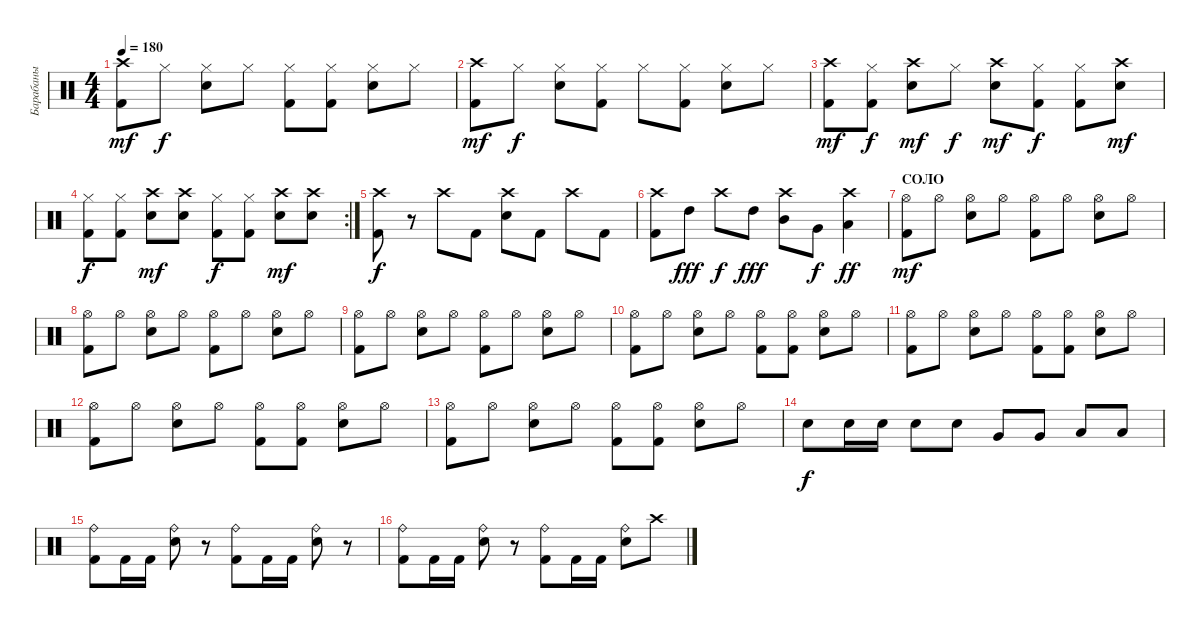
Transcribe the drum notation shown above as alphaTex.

\track ("Барабаны" "Барабаны") {instrument percussion}
\staff {score}
\articulation defaults
\ts (4 4)
\tempo 180
\clef neutral
\ks c
("Crash high (hit)" "Kick (hit) 2").8{dy mf} "Hi-Hat (closed)".8{dy f} ("Hi-Hat (closed)" "Snare (hit) 2").8 "Hi-Hat (closed)".8 ("Hi-Hat (closed)" "Kick (hit) 2").8 ("Hi-Hat (closed)" "Kick (hit) 2").8 ("Hi-Hat (closed)" "Snare (hit) 2").8 "Hi-Hat (closed)".8 |
("Crash high (hit)" "Kick (hit) 2").8{dy mf} "Hi-Hat (closed)".8{dy f} ("Hi-Hat (closed)" "Snare (hit) 2").8 ("Hi-Hat (closed)" "Kick (hit) 2").8 "Hi-Hat (closed)".8 ("Hi-Hat (closed)" "Kick (hit) 2").8 ("Hi-Hat (closed)" "Snare (hit) 2").8 "Hi-Hat (closed)".8 |
("Crash high (hit)" "Kick (hit) 2").8{dy mf} ("Hi-Hat (closed)" "Kick (hit) 2").8{dy f} ("Crash high (hit)" "Snare (hit) 2").8{dy mf} "Hi-Hat (closed)".8{dy f} ("Crash high (hit)" "Snare (hit) 2").8{dy mf} ("Hi-Hat (closed)" "Kick (hit) 2").8{dy f} ("Hi-Hat (closed)" "Kick (hit) 2").8 ("Crash high (hit)" "Snare (hit) 2").8{dy mf} |
\rc 2
("Hi-Hat (closed)" "Kick (hit) 2").8{dy f} ("Hi-Hat (closed)" "Kick (hit) 2").8 ("Crash high (hit)" "Snare (hit) 2").8{dy mf} ("Crash high (hit)" "Snare (hit) 2").8 ("Hi-Hat (closed)" "Kick (hit) 2").8{dy f} ("Hi-Hat (closed)" "Kick (hit) 2").8 ("Crash high (hit)" "Snare (hit) 2").8{dy mf} ("Crash high (hit)" "Snare (hit) 2").8 |
("Crash high (hit)" "Kick (hit) 2").8{dy f} r.8 "Crash high (hit)".8 "Kick (hit) 2".8 ("Crash high (hit)" "Snare (hit) 2").8 "Kick (hit) 2".8 "Crash high (hit)".8 "Kick (hit) 2".8 |
("Crash high (hit)" "Kick (hit) 2").8 "High Tom (hit)".8{dy fff} "Crash high (hit)".8{dy f} "High Tom (hit)".8{dy fff} ("Crash high (hit)" "Mid Tom (hit)").8 "Very Low Tom (hit)".8{dy f} ("Crash high (hit)" "Low Floor Tom (hit)").4{dy ff} |
\section ("" "СОЛО")
("Hi-Hat (open)" "Kick (hit) 2").8{dy mf} "Hi-Hat (open)".8 ("Hi-Hat (open)" "Snare (hit) 2").8 "Hi-Hat (open)".8 ("Hi-Hat (open)" "Kick (hit) 2").8 "Hi-Hat (open)".8 ("Hi-Hat (open)" "Snare (hit) 2").8 "Hi-Hat (open)".8 |
("Hi-Hat (open)" "Kick (hit) 2").8 "Hi-Hat (open)".8 ("Hi-Hat (open)" "Snare (hit) 2").8 "Hi-Hat (open)".8 ("Hi-Hat (open)" "Kick (hit) 2").8 "Hi-Hat (open)".8 ("Hi-Hat (open)" "Snare (hit) 2").8 "Hi-Hat (open)".8 |
("Hi-Hat (open)" "Kick (hit) 2").8 "Hi-Hat (open)".8 ("Hi-Hat (open)" "Snare (hit) 2").8 "Hi-Hat (open)".8 ("Hi-Hat (open)" "Kick (hit) 2").8 "Hi-Hat (open)".8 ("Hi-Hat (open)" "Snare (hit) 2").8 "Hi-Hat (open)".8 |
("Hi-Hat (open)" "Kick (hit) 2").8 "Hi-Hat (open)".8 ("Hi-Hat (open)" "Snare (hit) 2").8 "Hi-Hat (open)".8 ("Hi-Hat (open)" "Kick (hit) 2").8 ("Hi-Hat (open)" "Kick (hit) 2").8 ("Hi-Hat (open)" "Snare (hit) 2").8 "Hi-Hat (open)".8 |
("Hi-Hat (open)" "Kick (hit) 2").8 "Hi-Hat (open)".8 ("Hi-Hat (open)" "Snare (hit) 2").8 "Hi-Hat (open)".8 ("Hi-Hat (open)" "Kick (hit) 2").8 ("Hi-Hat (open)" "Kick (hit) 2").8 ("Hi-Hat (open)" "Snare (hit) 2").8 "Hi-Hat (open)".8 |
("Hi-Hat (open)" "Kick (hit) 2").8 "Hi-Hat (open)".8 ("Hi-Hat (open)" "Snare (hit) 2").8 "Hi-Hat (open)".8 ("Hi-Hat (open)" "Kick (hit) 2").8 ("Hi-Hat (open)" "Kick (hit) 2").8 ("Hi-Hat (open)" "Snare (hit) 2").8 "Hi-Hat (open)".8 |
("Hi-Hat (open)" "Kick (hit) 2").8 "Hi-Hat (open)".8 ("Hi-Hat (open)" "Snare (hit) 2").8 "Hi-Hat (open)".8 ("Hi-Hat (open)" "Kick (hit) 2").8 ("Hi-Hat (open)" "Kick (hit) 2").8 ("Hi-Hat (open)" "Snare (hit) 2").8 "Hi-Hat (open)".8 |
"Snare (hit) 2".8{dy f} "Snare (hit) 2".16 "Snare (hit) 2".16 "Snare (hit) 2".8 "Snare (hit) 2".8 "Very Low Tom (hit)".8 "Very Low Tom (hit)".8 "Low Floor Tom (hit)".8 "Low Floor Tom (hit)".8 |
("Ride (bell)" "Kick (hit) 2").8 "Kick (hit) 2".16 "Kick (hit) 2".16 ("Ride (bell)" "Snare (hit) 2").8 r.8 ("Ride (bell)" "Kick (hit) 2").8 "Kick (hit) 2".16 "Kick (hit) 2".16 ("Ride (bell)" "Snare (hit) 2").8 r.8 |
("Ride (bell)" "Kick (hit) 2").8 "Kick (hit) 2".16 "Kick (hit) 2".16 ("Ride (bell)" "Snare (hit) 2").8 r.8 ("Ride (bell)" "Kick (hit) 2").8 "Kick (hit) 2".16 "Kick (hit) 2".16 ("Ride (bell)" "Snare (hit) 2").8 "Crash high (hit)".8
